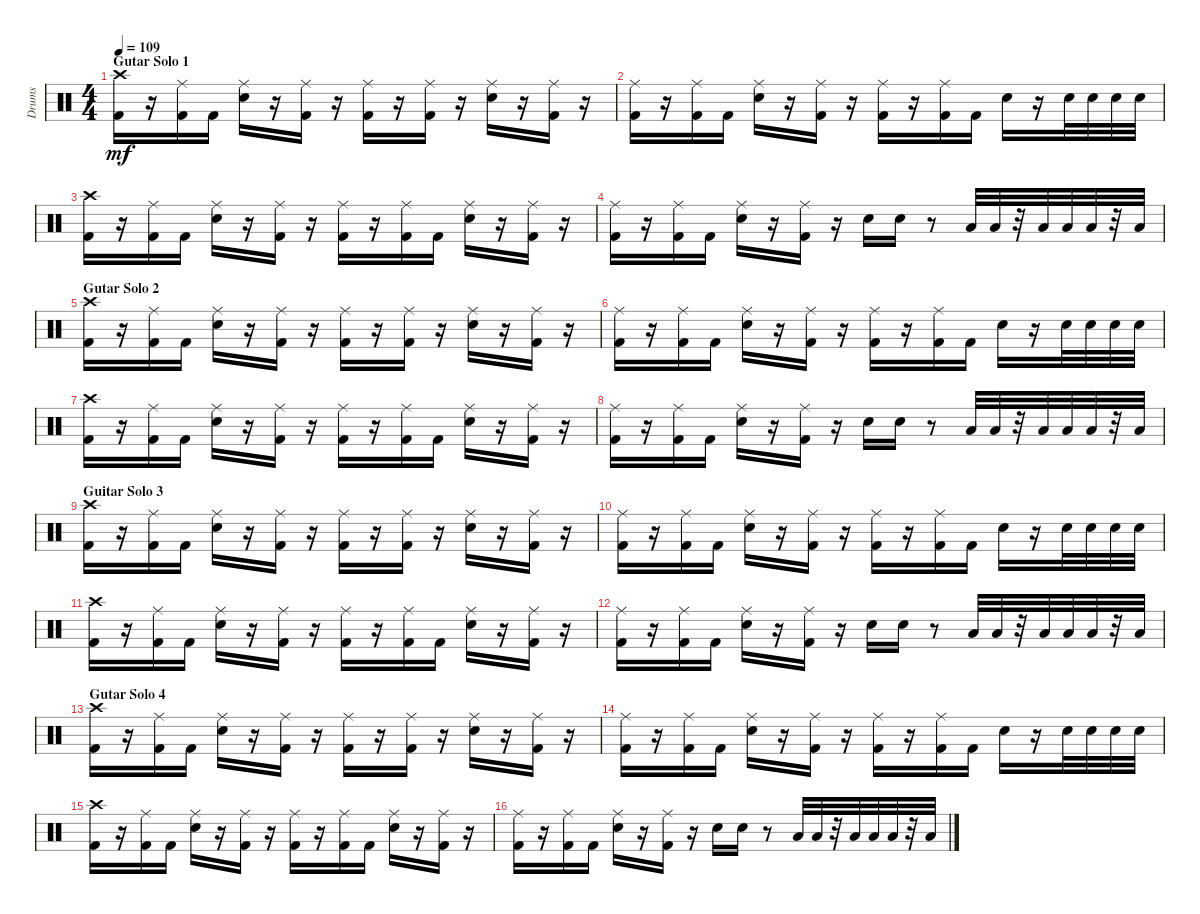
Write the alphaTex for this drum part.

\track ("Drums" "Drums") {instrument percussion}
\staff {score}
\articulation defaults
\ts (4 4)
\section ("" "Gutar Solo 1")
\tempo 109
\clef neutral
\ks c
("Crash high (hit)" "Kick (hit) 2").16{dy mf} r.16 ("Kick (hit) 2" "Ride (middle)").16 "Kick (hit) 2".16 ("Snare (hit) 2" "Ride (middle)").16 r.16 ("Kick (hit) 2" "Ride (middle)").16 r.16 ("Kick (hit) 2" "Ride (middle)").16 r.16 ("Kick (hit) 2" "Ride (middle)").16 r.16 ("Snare (hit) 2" "Ride (middle)").16 r.16 ("Kick (hit) 2" "Ride (middle)").16 r.16 |
("Kick (hit) 2" "Ride (middle)").16 r.16 ("Kick (hit) 2" "Ride (middle)").16 "Kick (hit) 2".16 ("Snare (hit) 2" "Ride (middle)").16 r.16 ("Kick (hit) 2" "Ride (middle)").16 r.16 ("Kick (hit) 2" "Ride (middle)").16 r.16 ("Kick (hit) 2" "Ride (middle)").16 "Kick (hit) 2".16 "Snare (hit) 2".16 r.16 "Snare (hit) 2".32 "Snare (hit) 2".32 "Snare (hit) 2".32 "Snare (hit) 2".32 |
("Crash high (hit)" "Kick (hit) 2").16 r.16 ("Kick (hit) 2" "Ride (middle)").16 "Kick (hit) 2".16 ("Snare (hit) 2" "Ride (middle)").16 r.16 ("Kick (hit) 2" "Ride (middle)").16 r.16 ("Kick (hit) 2" "Ride (middle)").16 r.16 ("Kick (hit) 2" "Ride (middle)").16 "Kick (hit) 2".16 ("Snare (hit) 2" "Ride (middle)").16 r.16 ("Kick (hit) 2" "Ride (middle)").16 r.16 |
("Kick (hit) 2" "Ride (middle)").16 r.16 ("Kick (hit) 2" "Ride (middle)").16 "Kick (hit) 2".16 ("Snare (hit) 2" "Ride (middle)").16 r.16 ("Kick (hit) 2" "Ride (middle)").16 r.16 "Snare (hit) 2".16 "Snare (hit) 2".16 r.8 "Low Tom (hit)".32 "Low Tom (hit)".32 r.32 "Low Tom (hit)".32 "Low Floor Tom (hit)".32 "Low Floor Tom (hit)".32 r.32 "Low Floor Tom (hit)".32 |
\section ("" "Gutar Solo 2")
("Crash high (hit)" "Kick (hit) 2").16 r.16 ("Kick (hit) 2" "Ride (middle)").16 "Kick (hit) 2".16 ("Snare (hit) 2" "Ride (middle)").16 r.16 ("Kick (hit) 2" "Ride (middle)").16 r.16 ("Kick (hit) 2" "Ride (middle)").16 r.16 ("Kick (hit) 2" "Ride (middle)").16 r.16 ("Snare (hit) 2" "Ride (middle)").16 r.16 ("Kick (hit) 2" "Ride (middle)").16 r.16 |
("Kick (hit) 2" "Ride (middle)").16 r.16 ("Kick (hit) 2" "Ride (middle)").16 "Kick (hit) 2".16 ("Snare (hit) 2" "Ride (middle)").16 r.16 ("Kick (hit) 2" "Ride (middle)").16 r.16 ("Kick (hit) 2" "Ride (middle)").16 r.16 ("Kick (hit) 2" "Ride (middle)").16 "Kick (hit) 2".16 "Snare (hit) 2".16 r.16 "Snare (hit) 2".32 "Snare (hit) 2".32 "Snare (hit) 2".32 "Snare (hit) 2".32 |
("Crash high (hit)" "Kick (hit) 2").16 r.16 ("Kick (hit) 2" "Ride (middle)").16 "Kick (hit) 2".16 ("Snare (hit) 2" "Ride (middle)").16 r.16 ("Kick (hit) 2" "Ride (middle)").16 r.16 ("Kick (hit) 2" "Ride (middle)").16 r.16 ("Kick (hit) 2" "Ride (middle)").16 "Kick (hit) 2".16 ("Snare (hit) 2" "Ride (middle)").16 r.16 ("Kick (hit) 2" "Ride (middle)").16 r.16 |
("Kick (hit) 2" "Ride (middle)").16 r.16 ("Kick (hit) 2" "Ride (middle)").16 "Kick (hit) 2".16 ("Snare (hit) 2" "Ride (middle)").16 r.16 ("Kick (hit) 2" "Ride (middle)").16 r.16 "Snare (hit) 2".16 "Snare (hit) 2".16 r.8 "Low Tom (hit)".32 "Low Tom (hit)".32 r.32 "Low Tom (hit)".32 "Low Floor Tom (hit)".32 "Low Floor Tom (hit)".32 r.32 "Low Floor Tom (hit)".32 |
\section ("" "Guitar Solo 3")
("Crash high (hit)" "Kick (hit) 2").16 r.16 ("Kick (hit) 2" "Ride (middle)").16 "Kick (hit) 2".16 ("Snare (hit) 2" "Ride (middle)").16 r.16 ("Kick (hit) 2" "Ride (middle)").16 r.16 ("Kick (hit) 2" "Ride (middle)").16 r.16 ("Kick (hit) 2" "Ride (middle)").16 r.16 ("Snare (hit) 2" "Ride (middle)").16 r.16 ("Kick (hit) 2" "Ride (middle)").16 r.16 |
("Kick (hit) 2" "Ride (middle)").16 r.16 ("Kick (hit) 2" "Ride (middle)").16 "Kick (hit) 2".16 ("Snare (hit) 2" "Ride (middle)").16 r.16 ("Kick (hit) 2" "Ride (middle)").16 r.16 ("Kick (hit) 2" "Ride (middle)").16 r.16 ("Kick (hit) 2" "Ride (middle)").16 "Kick (hit) 2".16 "Snare (hit) 2".16 r.16 "Snare (hit) 2".32 "Snare (hit) 2".32 "Snare (hit) 2".32 "Snare (hit) 2".32 |
("Crash high (hit)" "Kick (hit) 2").16 r.16 ("Kick (hit) 2" "Ride (middle)").16 "Kick (hit) 2".16 ("Snare (hit) 2" "Ride (middle)").16 r.16 ("Kick (hit) 2" "Ride (middle)").16 r.16 ("Kick (hit) 2" "Ride (middle)").16 r.16 ("Kick (hit) 2" "Ride (middle)").16 "Kick (hit) 2".16 ("Snare (hit) 2" "Ride (middle)").16 r.16 ("Kick (hit) 2" "Ride (middle)").16 r.16 |
("Kick (hit) 2" "Ride (middle)").16 r.16 ("Kick (hit) 2" "Ride (middle)").16 "Kick (hit) 2".16 ("Snare (hit) 2" "Ride (middle)").16 r.16 ("Kick (hit) 2" "Ride (middle)").16 r.16 "Snare (hit) 2".16 "Snare (hit) 2".16 r.8 "Low Tom (hit)".32 "Low Tom (hit)".32 r.32 "Low Tom (hit)".32 "Low Floor Tom (hit)".32 "Low Floor Tom (hit)".32 r.32 "Low Floor Tom (hit)".32 |
\section ("" "Gutar Solo 4")
("Crash high (hit)" "Kick (hit) 2").16 r.16 ("Kick (hit) 2" "Ride (middle)").16 "Kick (hit) 2".16 ("Snare (hit) 2" "Ride (middle)").16 r.16 ("Kick (hit) 2" "Ride (middle)").16 r.16 ("Kick (hit) 2" "Ride (middle)").16 r.16 ("Kick (hit) 2" "Ride (middle)").16 r.16 ("Snare (hit) 2" "Ride (middle)").16 r.16 ("Kick (hit) 2" "Ride (middle)").16 r.16 |
("Kick (hit) 2" "Ride (middle)").16 r.16 ("Kick (hit) 2" "Ride (middle)").16 "Kick (hit) 2".16 ("Snare (hit) 2" "Ride (middle)").16 r.16 ("Kick (hit) 2" "Ride (middle)").16 r.16 ("Kick (hit) 2" "Ride (middle)").16 r.16 ("Kick (hit) 2" "Ride (middle)").16 "Kick (hit) 2".16 "Snare (hit) 2".16 r.16 "Snare (hit) 2".32 "Snare (hit) 2".32 "Snare (hit) 2".32 "Snare (hit) 2".32 |
("Crash high (hit)" "Kick (hit) 2").16 r.16 ("Kick (hit) 2" "Ride (middle)").16 "Kick (hit) 2".16 ("Snare (hit) 2" "Ride (middle)").16 r.16 ("Kick (hit) 2" "Ride (middle)").16 r.16 ("Kick (hit) 2" "Ride (middle)").16 r.16 ("Kick (hit) 2" "Ride (middle)").16 "Kick (hit) 2".16 ("Snare (hit) 2" "Ride (middle)").16 r.16 ("Kick (hit) 2" "Ride (middle)").16 r.16 |
("Kick (hit) 2" "Ride (middle)").16 r.16 ("Kick (hit) 2" "Ride (middle)").16 "Kick (hit) 2".16 ("Snare (hit) 2" "Ride (middle)").16 r.16 ("Kick (hit) 2" "Ride (middle)").16 r.16 "Snare (hit) 2".16 "Snare (hit) 2".16 r.8 "Low Tom (hit)".32 "Low Tom (hit)".32 r.32 "Low Tom (hit)".32 "Low Floor Tom (hit)".32 "Low Floor Tom (hit)".32 r.32 "Low Floor Tom (hit)".32
